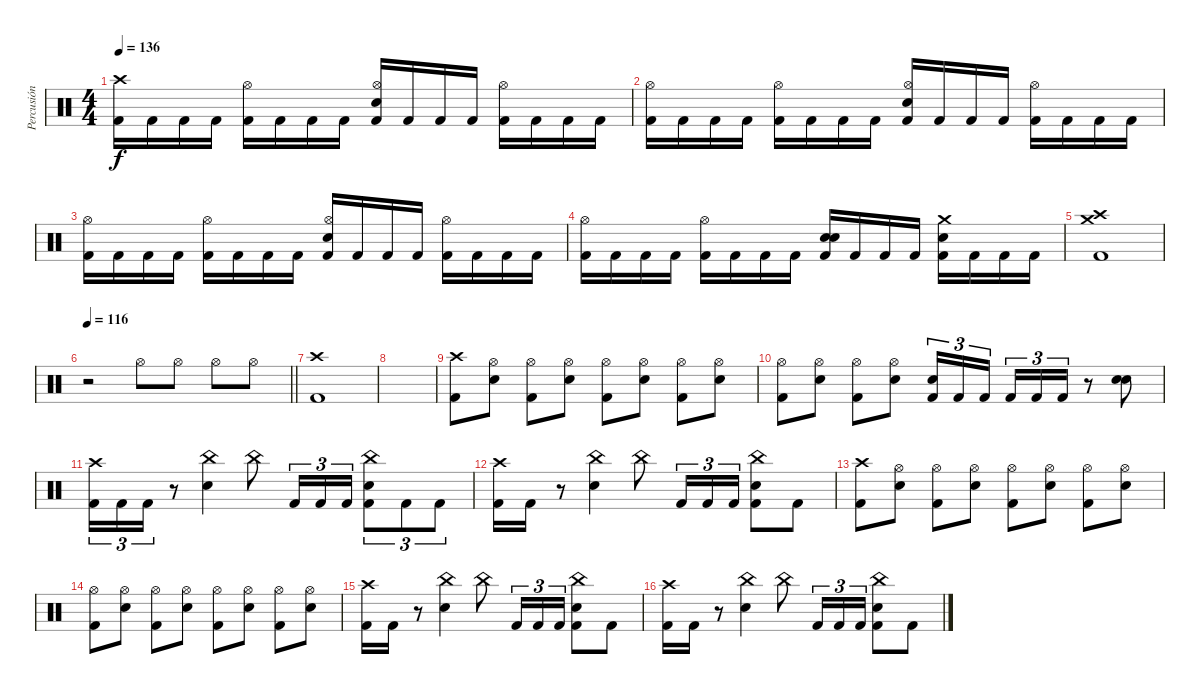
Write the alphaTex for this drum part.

\track ("Percusión" "Percusión") {instrument percussion}
\staff
\articulation defaults
\ts (4 4)
\tempo 136
\clef neutral
\ks c
("Kick (hit) 2" "Crash high (hit)").16{dy f} "Kick (hit) 2".16 "Kick (hit) 2".16 "Kick (hit) 2".16 ("Kick (hit) 2" "Hi-Hat (open)").16 "Kick (hit) 2".16 "Kick (hit) 2".16 "Kick (hit) 2".16 ("Kick (hit) 2" "Hi-Hat (open)" "Electric Snare (hit)").16 "Kick (hit) 2".16 "Kick (hit) 2".16 "Kick (hit) 2".16 ("Kick (hit) 2" "Hi-Hat (open)").16 "Kick (hit) 2".16 "Kick (hit) 2".16 "Kick (hit) 2".16 |
("Kick (hit) 2" "Hi-Hat (open)").16 "Kick (hit) 2".16 "Kick (hit) 2".16 "Kick (hit) 2".16 ("Kick (hit) 2" "Hi-Hat (open)").16 "Kick (hit) 2".16 "Kick (hit) 2".16 "Kick (hit) 2".16 ("Kick (hit) 2" "Hi-Hat (open)" "Electric Snare (hit)").16 "Kick (hit) 2".16 "Kick (hit) 2".16 "Kick (hit) 2".16 ("Kick (hit) 2" "Hi-Hat (open)").16 "Kick (hit) 2".16 "Kick (hit) 2".16 "Kick (hit) 2".16 |
("Kick (hit) 2" "Hi-Hat (open)").16 "Kick (hit) 2".16 "Kick (hit) 2".16 "Kick (hit) 2".16 ("Kick (hit) 2" "Hi-Hat (open)").16 "Kick (hit) 2".16 "Kick (hit) 2".16 "Kick (hit) 2".16 ("Kick (hit) 2" "Hi-Hat (open)" "Electric Snare (hit)").16 "Kick (hit) 2".16 "Kick (hit) 2".16 "Kick (hit) 2".16 ("Kick (hit) 2" "Hi-Hat (open)").16 "Kick (hit) 2".16 "Kick (hit) 2".16 "Kick (hit) 2".16 |
("Kick (hit) 2" "Hi-Hat (open)").16 "Kick (hit) 2".16 "Kick (hit) 2".16 "Kick (hit) 2".16 ("Kick (hit) 2" "Hi-Hat (open)").16 "Kick (hit) 2".16 "Kick (hit) 2".16 "Kick (hit) 2".16 ("Kick (hit) 2" "Snare (hit) 2" "Electric Snare (hit)").16 "Kick (hit) 2".16 "Kick (hit) 2".16 "Kick (hit) 2".16 ("Kick (hit) 2" "Crash medium (hit)" "Electric Snare (hit)").16 "Kick (hit) 2".16 "Kick (hit) 2".16 "Kick (hit) 2".16 |
("Kick (hit) 2" "Crash high (hit)" "Crash medium (hit)").1 |
\tempo 116
\barLineRight lightlight
r.2 "Hi-Hat (open)".8 "Hi-Hat (open)".8 "Hi-Hat (open)".8 "Hi-Hat (open)".8 |
\section ("" "")
("Kick (hit) 2" "Crash high (hit)").1 |
|
("Kick (hit) 2" "Crash high (hit)").8 ("Hi-Hat (open)" "Electric Snare (hit)").8 ("Kick (hit) 2" "Hi-Hat (open)").8 ("Hi-Hat (open)" "Electric Snare (hit)").8 ("Kick (hit) 2" "Hi-Hat (open)").8 ("Hi-Hat (open)" "Electric Snare (hit)").8 ("Kick (hit) 2" "Hi-Hat (open)").8 ("Hi-Hat (open)" "Electric Snare (hit)").8 |
("Kick (hit) 2" "Hi-Hat (open)").8 ("Hi-Hat (open)" "Electric Snare (hit)").8 ("Kick (hit) 2" "Hi-Hat (open)").8 ("Hi-Hat (open)" "Electric Snare (hit)").8 ("Kick (hit) 2" "Electric Snare (hit)").16{tu (3 2)} "Kick (hit) 2".16{tu (3 2)} "Kick (hit) 2".16{tu (3 2) beam splitsecondary} "Kick (hit) 2".16{tu (3 2)} "Kick (hit) 2".16{tu (3 2)} "Kick (hit) 2".16{tu (3 2)} r.8 ("Electric Snare (hit)" "Snare (hit) 2").8 |
("Kick (hit) 2" "Crash high (hit)").16{tu (3 2)} "Kick (hit) 2".16{tu (3 2)} "Kick (hit) 2".16{tu (3 2)} r.8 ("China (hit)" "Electric Snare (hit)").4 "China (hit)".8 "Kick (hit) 2".16{tu (3 2)} "Kick (hit) 2".16{tu (3 2)} "Kick (hit) 2".16{tu (3 2)} ("Kick (hit) 2" "China (hit)" "Electric Snare (hit)").8{tu (3 2)} "Kick (hit) 2".8{tu (3 2)} "Kick (hit) 2".8{tu (3 2)} |
("Kick (hit) 2" "Crash high (hit)").16 "Kick (hit) 2".16 r.8 ("China (hit)" "Electric Snare (hit)").4 "China (hit)".8 "Kick (hit) 2".16{tu (3 2)} "Kick (hit) 2".16{tu (3 2)} "Kick (hit) 2".16{tu (3 2)} ("Kick (hit) 2" "China (hit)" "Electric Snare (hit)").8 "Kick (hit) 2".8 |
("Kick (hit) 2" "Crash high (hit)").8 ("Hi-Hat (open)" "Electric Snare (hit)").8 ("Kick (hit) 2" "Hi-Hat (open)").8 ("Hi-Hat (open)" "Electric Snare (hit)").8 ("Kick (hit) 2" "Hi-Hat (open)").8 ("Hi-Hat (open)" "Electric Snare (hit)").8 ("Kick (hit) 2" "Hi-Hat (open)").8 ("Hi-Hat (open)" "Electric Snare (hit)").8 |
("Kick (hit) 2" "Hi-Hat (open)").8 ("Hi-Hat (open)" "Electric Snare (hit)").8 ("Kick (hit) 2" "Hi-Hat (open)").8 ("Hi-Hat (open)" "Electric Snare (hit)").8 ("Kick (hit) 2" "Hi-Hat (open)").8 ("Hi-Hat (open)" "Electric Snare (hit)").8 ("Kick (hit) 2" "Hi-Hat (open)").8 ("Hi-Hat (open)" "Electric Snare (hit)").8 |
("Kick (hit) 2" "Crash high (hit)").16 "Kick (hit) 2".16 r.8 ("China (hit)" "Electric Snare (hit)").4 "China (hit)".8 "Kick (hit) 2".16{tu (3 2)} "Kick (hit) 2".16{tu (3 2)} "Kick (hit) 2".16{tu (3 2)} ("Kick (hit) 2" "China (hit)" "Electric Snare (hit)").8 "Kick (hit) 2".8 |
("Kick (hit) 2" "Crash high (hit)").16 "Kick (hit) 2".16 r.8 ("China (hit)" "Electric Snare (hit)").4 "China (hit)".8 "Kick (hit) 2".16{tu (3 2)} "Kick (hit) 2".16{tu (3 2)} "Kick (hit) 2".16{tu (3 2)} ("Kick (hit) 2" "China (hit)" "Electric Snare (hit)").8 "Kick (hit) 2".8
